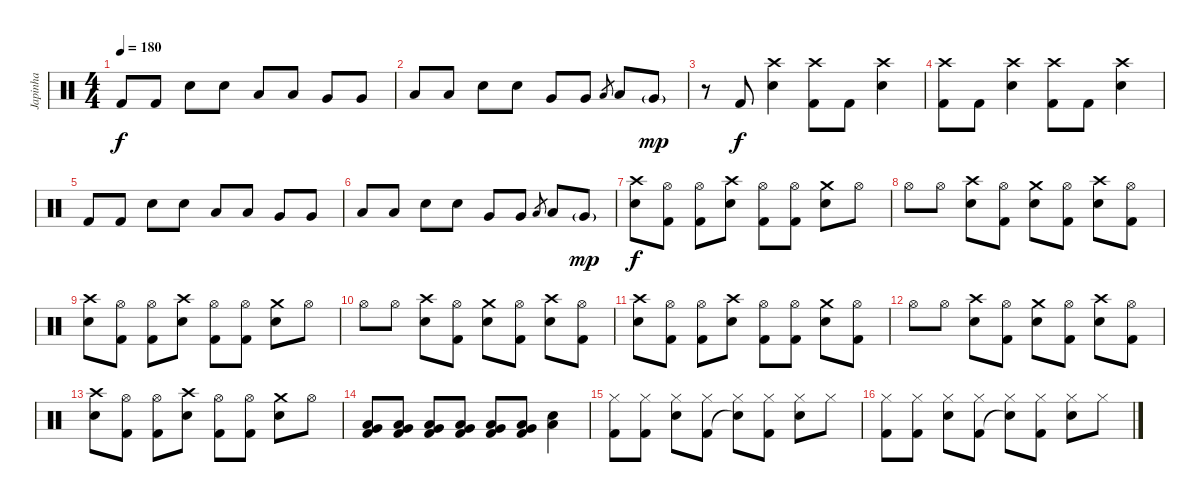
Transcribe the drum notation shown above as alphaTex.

\track ("Japinha" "Japinha") {instrument percussion}
\staff {score}
\articulation defaults
\ts (4 4)
\tempo 180
\clef neutral
\ks c "Kick (hit) 2".8{dy f} "Kick (hit) 2".8 "Snare (hit) 2".8 "Snare (hit) 2".8 "Low Tom (hit)".8 "Low Tom (hit)".8 "Very Low Tom (hit)".8 "Very Low Tom (hit)".8
|
"Low Tom (hit)".8 "Low Tom (hit)".8 "Snare (hit) 2".8 "Snare (hit) 2".8 "Very Low Tom (hit)".8 "Very Low Tom (hit)".8 "Low Tom (hit)".8{gr} "Low Tom (hit)".8 "Very Low Tom (hit)"{g}.8{dy mp} |
r.8 "Kick (hit) 2".8{dy f} ("Snare (hit) 2" "Crash high (hit)").4 ("Kick (hit) 2" "Crash high (hit)").8 "Kick (hit) 2".8 ("Snare (hit) 2" "Crash high (hit)").4 |
("Kick (hit) 2" "Crash high (hit)").8 "Kick (hit) 2".8 ("Snare (hit) 2" "Crash high (hit)").4 ("Kick (hit) 2" "Crash high (hit)").8 "Kick (hit) 2".8 ("Snare (hit) 2" "Crash high (hit)").4 |
"Kick (hit) 2".8 "Kick (hit) 2".8 "Snare (hit) 2".8 "Snare (hit) 2".8 "Low Tom (hit)".8 "Low Tom (hit)".8 "Very Low Tom (hit)".8 "Very Low Tom (hit)".8 |
"Low Tom (hit)".8 "Low Tom (hit)".8 "Snare (hit) 2".8 "Snare (hit) 2".8 "Very Low Tom (hit)".8 "Very Low Tom (hit)".8 "Low Tom (hit)".8{gr} "Low Tom (hit)".8 "Very Low Tom (hit)"{g}.8{dy mp} |
("Snare (hit) 2" "Crash high (hit)").8{dy f} ("Kick (hit) 2" "Hi-Hat (open)").8 ("Kick (hit) 2" "Hi-Hat (open)").8 ("Snare (hit) 2" "Crash high (hit)").8 ("Kick (hit) 2" "Hi-Hat (open)").8 ("Kick (hit) 2" "Hi-Hat (open)").8 ("Snare (hit) 2" "Crash medium (hit)").8 "Hi-Hat (open)".8 |
"Hi-Hat (open)".8 "Hi-Hat (open)".8 ("Snare (hit) 2" "Crash high (hit)").8 ("Kick (hit) 2" "Hi-Hat (open)").8 ("Snare (hit) 2" "Crash medium (hit)").8 ("Kick (hit) 2" "Hi-Hat (open)").8 ("Snare (hit) 2" "Crash high (hit)").8 ("Kick (hit) 2" "Hi-Hat (open)").8 |
("Snare (hit) 2" "Crash high (hit)").8 ("Kick (hit) 2" "Hi-Hat (open)").8 ("Kick (hit) 2" "Hi-Hat (open)").8 ("Snare (hit) 2" "Crash high (hit)").8 ("Kick (hit) 2" "Hi-Hat (open)").8 ("Kick (hit) 2" "Hi-Hat (open)").8 ("Snare (hit) 2" "Crash medium (hit)").8 "Hi-Hat (open)".8 |
"Hi-Hat (open)".8 "Hi-Hat (open)".8 ("Snare (hit) 2" "Crash high (hit)").8 ("Kick (hit) 2" "Hi-Hat (open)").8 ("Snare (hit) 2" "Crash medium (hit)").8 ("Kick (hit) 2" "Hi-Hat (open)").8 ("Snare (hit) 2" "Crash high (hit)").8 ("Kick (hit) 2" "Hi-Hat (open)").8 |
("Snare (hit) 2" "Crash high (hit)").8 ("Kick (hit) 2" "Hi-Hat (open)").8 ("Kick (hit) 2" "Hi-Hat (open)").8 ("Snare (hit) 2" "Crash high (hit)").8 ("Kick (hit) 2" "Hi-Hat (open)").8 ("Kick (hit) 2" "Hi-Hat (open)").8 ("Snare (hit) 2" "Crash medium (hit)").8 ("Kick (hit) 2" "Hi-Hat (open)").8 |
"Hi-Hat (open)".8 "Hi-Hat (open)".8 ("Snare (hit) 2" "Crash high (hit)").8 ("Kick (hit) 2" "Hi-Hat (open)").8 ("Snare (hit) 2" "Crash medium (hit)").8 ("Kick (hit) 2" "Hi-Hat (open)").8 ("Snare (hit) 2" "Crash high (hit)").8 ("Kick (hit) 2" "Hi-Hat (open)").8 |
("Snare (hit) 2" "Crash high (hit)").8 ("Kick (hit) 2" "Hi-Hat (open)").8 ("Kick (hit) 2" "Hi-Hat (open)").8 ("Snare (hit) 2" "Crash high (hit)").8 ("Kick (hit) 2" "Hi-Hat (open)").8 ("Kick (hit) 2" "Hi-Hat (open)").8 ("Snare (hit) 2" "Crash medium (hit)").8 "Hi-Hat (open)".8 |
("Kick (hit) 2" "Low Floor Tom (hit)" "Very Low Tom (hit)").8 ("Kick (hit) 2" "Low Floor Tom (hit)" "Very Low Tom (hit)").8 ("Kick (hit) 2" "Low Floor Tom (hit)" "Very Low Tom (hit)").8 ("Kick (hit) 2" "Low Floor Tom (hit)" "Very Low Tom (hit)").8 ("Kick (hit) 2" "Low Floor Tom (hit)" "Very Low Tom (hit)").8 ("Kick (hit) 2" "Low Floor Tom (hit)" "Very Low Tom (hit)").8 ("Snare (hit) 2" "Low Floor Tom (hit)").4 |
("Kick (hit) 2" "Hi-Hat (closed)").8 ("Kick (hit) 2" "Hi-Hat (closed)").8 ("Snare (hit) 2" "Hi-Hat (closed)").8 ("Kick (hit) 2" "Hi-Hat (closed)").8 ("Snare (hit)"{t} "Hi-Hat (closed)").8 ("Kick (hit) 2" "Hi-Hat (closed)").8 ("Snare (hit) 2" "Hi-Hat (closed)").8 "Hi-Hat (closed)".8 |
("Kick (hit) 2" "Hi-Hat (closed)").8 ("Kick (hit) 2" "Hi-Hat (closed)").8 ("Snare (hit) 2" "Hi-Hat (closed)").8 ("Kick (hit) 2" "Hi-Hat (closed)").8 ("Snare (hit)"{t} "Hi-Hat (closed)").8 ("Kick (hit) 2" "Hi-Hat (closed)").8 ("Snare (hit) 2" "Hi-Hat (closed)").8 "Hi-Hat (closed)".8
